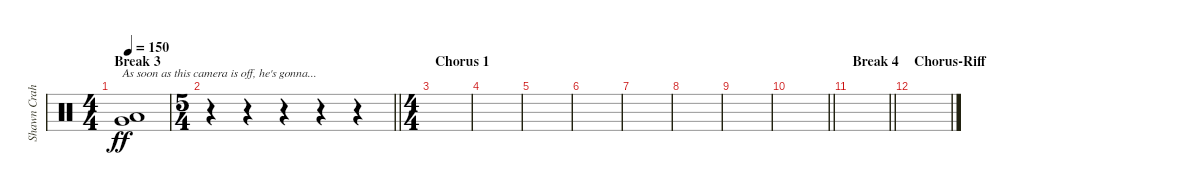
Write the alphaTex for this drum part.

\track ("Shawn Crahan" "Shawn Crah") {instrument percussion}
\staff {score}
\articulation defaults
\ts (4 4)
\section ("" "Break 3")
\tempo 150
\clef neutral
\ks c
("Very Low Tom (hit)" "Low Floor Tom (hit)").1{txt "As soon as this camera is off, he's gonna..." dy ff} |
\ts (5 4)
\barLineRight lightlight
r.4 r.4 r.4 r.4 r.4 |
\ts (4 4)
\section ("" "Chorus 1")
|
|
|
|
|
|
|
\barLineRight lightlight
|
\section ("" "Break 4")
\barLineRight lightlight
|
\section ("" "Chorus-Riff ")
